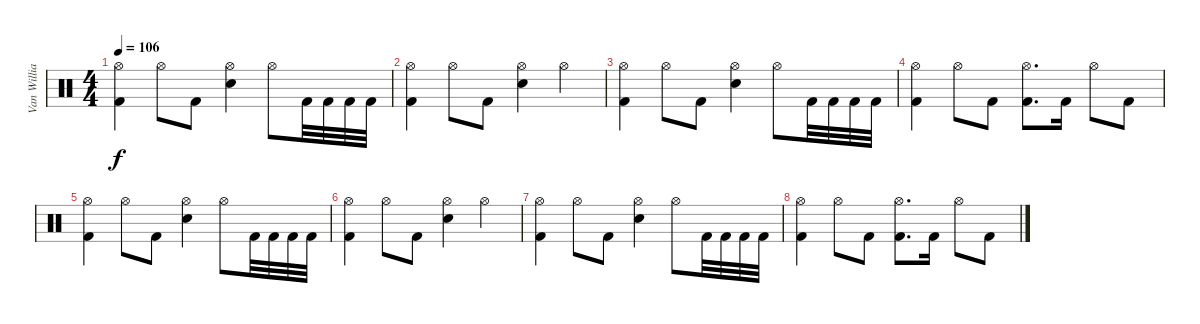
\track ("Van Williams" "Van Willia") {instrument percussion}
\staff {score}
\articulation defaults
\ts (4 4)
\tempo 106
\clef neutral
\ks c
("Hi-Hat (open)" "Kick (hit) 2").4{dy f} "Hi-Hat (open)".8 "Kick (hit) 2".8 ("Electric Snare (hit)" "Hi-Hat (open)").4 "Hi-Hat (open)".8 "Kick (hit) 2".32 "Kick (hit) 2".32 "Kick (hit) 2".32 "Kick (hit) 2".32 |
("Kick (hit) 2" "Hi-Hat (open)").4 "Hi-Hat (open)".8 "Kick (hit) 2".8 ("Electric Snare (hit)" "Hi-Hat (open)").4 "Hi-Hat (open)".4 |
("Kick (hit) 2" "Hi-Hat (open)").4 "Hi-Hat (open)".8 "Kick (hit) 2".8 ("Electric Snare (hit)" "Hi-Hat (open)").4 "Hi-Hat (open)".8 "Kick (hit) 2".32 "Kick (hit) 2".32 "Kick (hit) 2".32 "Kick (hit) 2".32 |
("Kick (hit) 2" "Hi-Hat (open)").4 "Hi-Hat (open)".8 "Kick (hit) 2".8 ("Kick (hit) 2" "Hi-Hat (open)").8{d} "Kick (hit) 2".16 "Hi-Hat (open)".8 "Kick (hit) 2".8 |
("Hi-Hat (open)" "Kick (hit) 2").4 "Hi-Hat (open)".8 "Kick (hit) 2".8 ("Electric Snare (hit)" "Hi-Hat (open)").4 "Hi-Hat (open)".8 "Kick (hit) 2".32 "Kick (hit) 2".32 "Kick (hit) 2".32 "Kick (hit) 2".32 |
("Kick (hit) 2" "Hi-Hat (open)").4 "Hi-Hat (open)".8 "Kick (hit) 2".8 ("Electric Snare (hit)" "Hi-Hat (open)").4 "Hi-Hat (open)".4 |
("Kick (hit) 2" "Hi-Hat (open)").4 "Hi-Hat (open)".8 "Kick (hit) 2".8 ("Electric Snare (hit)" "Hi-Hat (open)").4 "Hi-Hat (open)".8 "Kick (hit) 2".32 "Kick (hit) 2".32 "Kick (hit) 2".32 "Kick (hit) 2".32 |
("Kick (hit) 2" "Hi-Hat (open)").4 "Hi-Hat (open)".8 "Kick (hit) 2".8 ("Kick (hit) 2" "Hi-Hat (open)").8{d} "Kick (hit) 2".16 "Hi-Hat (open)".8 "Kick (hit) 2".8
